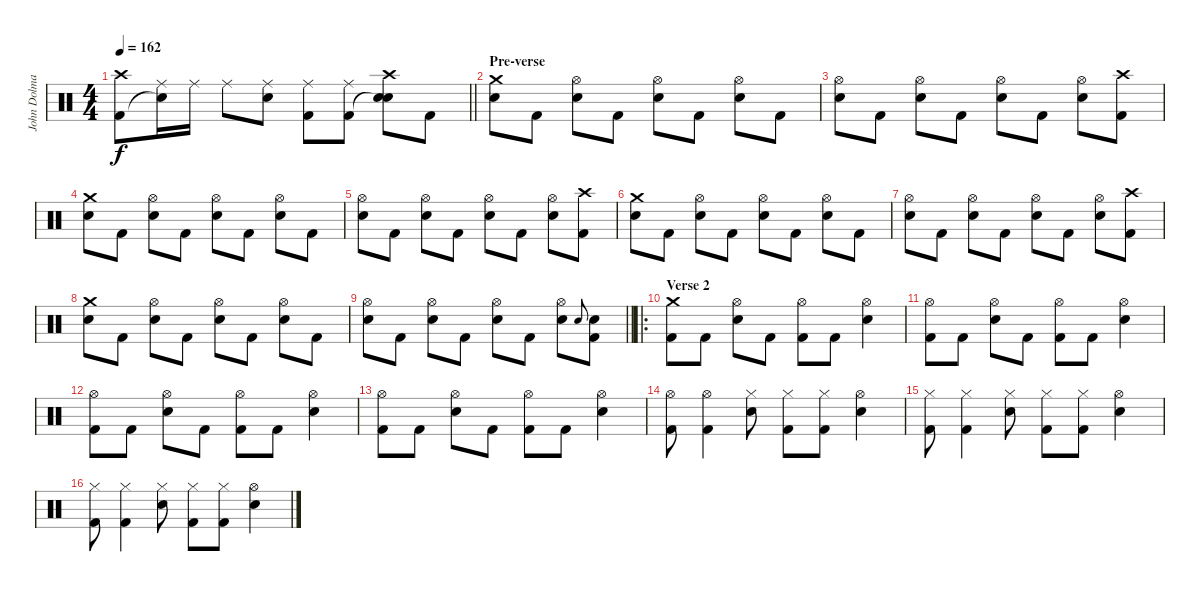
\track ("John Dolmayan" "John Dolma") {instrument percussion}
\staff {score}
\articulation defaults
\ts (4 4)
\tempo 162
\clef neutral
\barLineRight lightlight
\ks c
("Crash high (hit)" "Kick (hit) 2").8{dy f} ("Ride (middle)" "Snare (hit)"{t}).16 "Ride (middle)".16 "Ride (middle)".8 ("Ride (middle)" "Electric Snare (hit)").8 ("Ride (middle)" "Kick (hit) 2").8 ("Ride (middle)" "Kick (hit) 2").8 ("Crash high (hit)" "Snare (hit)"{t} "Electric Snare (hit)").8 "Kick (hit) 2".8 |
\section ("" "Pre-verse")
("Crash medium (hit)" "Electric Snare (hit)").8 "Kick (hit) 2".8 ("Hi-Hat (open)" "Electric Snare (hit)").8 "Kick (hit) 2".8 ("Hi-Hat (open)" "Electric Snare (hit)").8 "Kick (hit) 2".8 ("Hi-Hat (open)" "Electric Snare (hit)").8 "Kick (hit) 2".8 |
("Hi-Hat (open)" "Electric Snare (hit)").8 "Kick (hit) 2".8 ("Hi-Hat (open)" "Electric Snare (hit)").8 "Kick (hit) 2".8 ("Hi-Hat (open)" "Electric Snare (hit)").8 "Kick (hit) 2".8 ("Hi-Hat (open)" "Electric Snare (hit)").8 ("Crash high (hit)" "Kick (hit) 2").8 |
("Crash medium (hit)" "Electric Snare (hit)").8 "Kick (hit) 2".8 ("Hi-Hat (open)" "Electric Snare (hit)").8 "Kick (hit) 2".8 ("Hi-Hat (open)" "Electric Snare (hit)").8 "Kick (hit) 2".8 ("Hi-Hat (open)" "Electric Snare (hit)").8 "Kick (hit) 2".8 |
("Hi-Hat (open)" "Electric Snare (hit)").8 "Kick (hit) 2".8 ("Hi-Hat (open)" "Electric Snare (hit)").8 "Kick (hit) 2".8 ("Hi-Hat (open)" "Electric Snare (hit)").8 "Kick (hit) 2".8 ("Hi-Hat (open)" "Electric Snare (hit)").8 ("Crash high (hit)" "Kick (hit) 2").8 |
("Crash medium (hit)" "Electric Snare (hit)").8 "Kick (hit) 2".8 ("Hi-Hat (open)" "Electric Snare (hit)").8 "Kick (hit) 2".8 ("Hi-Hat (open)" "Electric Snare (hit)").8 "Kick (hit) 2".8 ("Hi-Hat (open)" "Electric Snare (hit)").8 "Kick (hit) 2".8 |
("Hi-Hat (open)" "Electric Snare (hit)").8 "Kick (hit) 2".8 ("Hi-Hat (open)" "Electric Snare (hit)").8 "Kick (hit) 2".8 ("Hi-Hat (open)" "Electric Snare (hit)").8 "Kick (hit) 2".8 ("Hi-Hat (open)" "Electric Snare (hit)").8 ("Crash high (hit)" "Kick (hit) 2").8 |
("Crash medium (hit)" "Electric Snare (hit)").8 "Kick (hit) 2".8 ("Hi-Hat (open)" "Electric Snare (hit)").8 "Kick (hit) 2".8 ("Hi-Hat (open)" "Electric Snare (hit)").8 "Kick (hit) 2".8 ("Hi-Hat (open)" "Electric Snare (hit)").8 "Kick (hit) 2".8 |
\barLineRight lightlight
("Hi-Hat (open)" "Electric Snare (hit)").8 "Kick (hit) 2".8 ("Hi-Hat (open)" "Electric Snare (hit)").8 "Kick (hit) 2".8 ("Hi-Hat (open)" "Electric Snare (hit)").8 "Kick (hit) 2".8 ("Hi-Hat (open)" "Electric Snare (hit)").8 "Electric Snare (hit)".8{gr onbeat} ("Electric Snare (hit)" "Kick (hit) 2").8 |
\ro
\section ("" "Verse 2")
("Crash medium (hit)" "Kick (hit) 2").8 "Kick (hit) 2".8 ("Hi-Hat (open)" "Electric Snare (hit)").8 "Kick (hit) 2".8 ("Hi-Hat (open)" "Kick (hit) 2").8 "Kick (hit) 2".8 ("Hi-Hat (open)" "Electric Snare (hit)").4 |
("Hi-Hat (open)" "Kick (hit) 2").8 "Kick (hit) 2".8 ("Hi-Hat (open)" "Electric Snare (hit)").8 "Kick (hit) 2".8 ("Hi-Hat (open)" "Kick (hit) 2").8 "Kick (hit) 2".8 ("Hi-Hat (open)" "Electric Snare (hit)").4 |
("Hi-Hat (open)" "Kick (hit) 2").8 "Kick (hit) 2".8 ("Hi-Hat (open)" "Electric Snare (hit)").8 "Kick (hit) 2".8 ("Hi-Hat (open)" "Kick (hit) 2").8 "Kick (hit) 2".8 ("Hi-Hat (open)" "Electric Snare (hit)").4 |
("Hi-Hat (open)" "Kick (hit) 2").8 "Kick (hit) 2".8 ("Hi-Hat (open)" "Electric Snare (hit)").8 "Kick (hit) 2".8 ("Hi-Hat (open)" "Kick (hit) 2").8 "Kick (hit) 2".8 ("Hi-Hat (open)" "Electric Snare (hit)").4 |
("Hi-Hat (open)" "Kick (hit) 2").8 ("Hi-Hat (open)" "Kick (hit) 2").4 ("Hi-Hat (closed)" "Electric Snare (hit)").8 ("Hi-Hat (closed)" "Kick (hit) 2").8 ("Hi-Hat (closed)" "Kick (hit) 2").8 ("Hi-Hat (open)" "Electric Snare (hit)").4 |
("Hi-Hat (closed)" "Kick (hit) 2").8 ("Hi-Hat (closed)" "Kick (hit) 2").4 ("Hi-Hat (closed)" "Electric Snare (hit)").8 ("Hi-Hat (closed)" "Kick (hit) 2").8 ("Hi-Hat (closed)" "Kick (hit) 2").8 ("Hi-Hat (open)" "Electric Snare (hit)").4 |
("Hi-Hat (closed)" "Kick (hit) 2").8 ("Hi-Hat (closed)" "Kick (hit) 2").4 ("Hi-Hat (closed)" "Electric Snare (hit)").8 ("Hi-Hat (closed)" "Kick (hit) 2").8 ("Hi-Hat (closed)" "Kick (hit) 2").8 ("Hi-Hat (open)" "Electric Snare (hit)").4
